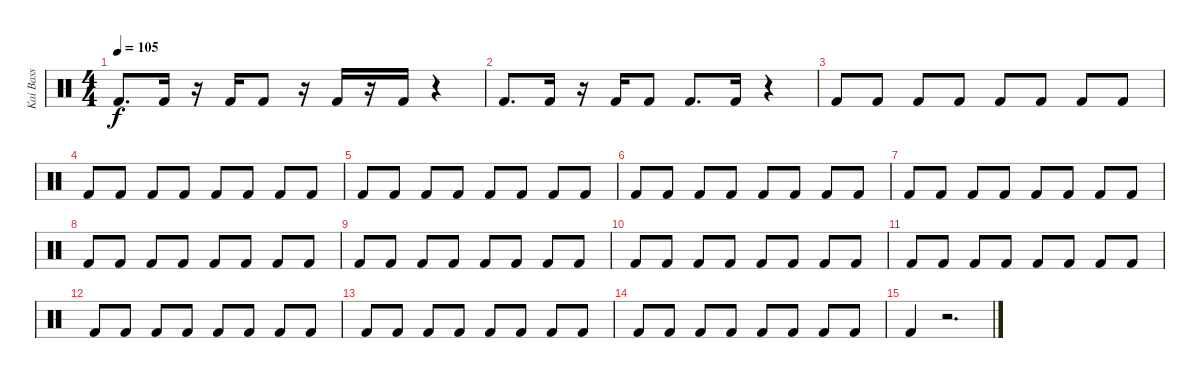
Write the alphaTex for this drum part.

\track ("Kai Bass" "Kai Bass") {instrument percussion}
\staff {score}
\articulation defaults
\ts (4 4)
\tempo 105
\clef neutral
\ks c "Kick (hit) 2".8{d dy f} "Kick (hit) 2".16
r.16 "Kick (hit) 2".16 "Kick (hit) 2".8 r.16 "Kick (hit) 2".16 r.16 "Kick (hit) 2".16 r.4 |
"Kick (hit) 2".8{d} "Kick (hit) 2".16 r.16 "Kick (hit) 2".16 "Kick (hit) 2".8 "Kick (hit) 2".8{d} "Kick (hit) 2".16 r.4 |
"Kick (hit) 2".8 "Kick (hit) 2".8 "Kick (hit) 2".8 "Kick (hit) 2".8 "Kick (hit) 2".8 "Kick (hit) 2".8 "Kick (hit) 2".8 "Kick (hit) 2".8 |
"Kick (hit) 2".8 "Kick (hit) 2".8 "Kick (hit) 2".8 "Kick (hit) 2".8 "Kick (hit) 2".8 "Kick (hit) 2".8 "Kick (hit) 2".8 "Kick (hit) 2".8 |
"Kick (hit) 2".8 "Kick (hit) 2".8 "Kick (hit) 2".8 "Kick (hit) 2".8 "Kick (hit) 2".8 "Kick (hit) 2".8 "Kick (hit) 2".8 "Kick (hit) 2".8 |
"Kick (hit) 2".8 "Kick (hit) 2".8 "Kick (hit) 2".8 "Kick (hit) 2".8 "Kick (hit) 2".8 "Kick (hit) 2".8 "Kick (hit) 2".8 "Kick (hit) 2".8 |
"Kick (hit) 2".8 "Kick (hit) 2".8 "Kick (hit) 2".8 "Kick (hit) 2".8 "Kick (hit) 2".8 "Kick (hit) 2".8 "Kick (hit) 2".8 "Kick (hit) 2".8 |
"Kick (hit) 2".8 "Kick (hit) 2".8 "Kick (hit) 2".8 "Kick (hit) 2".8 "Kick (hit) 2".8 "Kick (hit) 2".8 "Kick (hit) 2".8 "Kick (hit) 2".8 |
"Kick (hit) 2".8 "Kick (hit) 2".8 "Kick (hit) 2".8 "Kick (hit) 2".8 "Kick (hit) 2".8 "Kick (hit) 2".8 "Kick (hit) 2".8 "Kick (hit) 2".8 |
"Kick (hit) 2".8 "Kick (hit) 2".8 "Kick (hit) 2".8 "Kick (hit) 2".8 "Kick (hit) 2".8 "Kick (hit) 2".8 "Kick (hit) 2".8 "Kick (hit) 2".8 |
"Kick (hit) 2".8 "Kick (hit) 2".8 "Kick (hit) 2".8 "Kick (hit) 2".8 "Kick (hit) 2".8 "Kick (hit) 2".8 "Kick (hit) 2".8 "Kick (hit) 2".8 |
"Kick (hit) 2".8 "Kick (hit) 2".8 "Kick (hit) 2".8 "Kick (hit) 2".8 "Kick (hit) 2".8 "Kick (hit) 2".8 "Kick (hit) 2".8 "Kick (hit) 2".8 |
"Kick (hit) 2".8 "Kick (hit) 2".8 "Kick (hit) 2".8 "Kick (hit) 2".8 "Kick (hit) 2".8 "Kick (hit) 2".8 "Kick (hit) 2".8 "Kick (hit) 2".8 |
"Kick (hit) 2".8 "Kick (hit) 2".8 "Kick (hit) 2".8 "Kick (hit) 2".8 "Kick (hit) 2".8 "Kick (hit) 2".8 "Kick (hit) 2".8 "Kick (hit) 2".8 |
"Kick (hit) 2".4 r.2{d}
